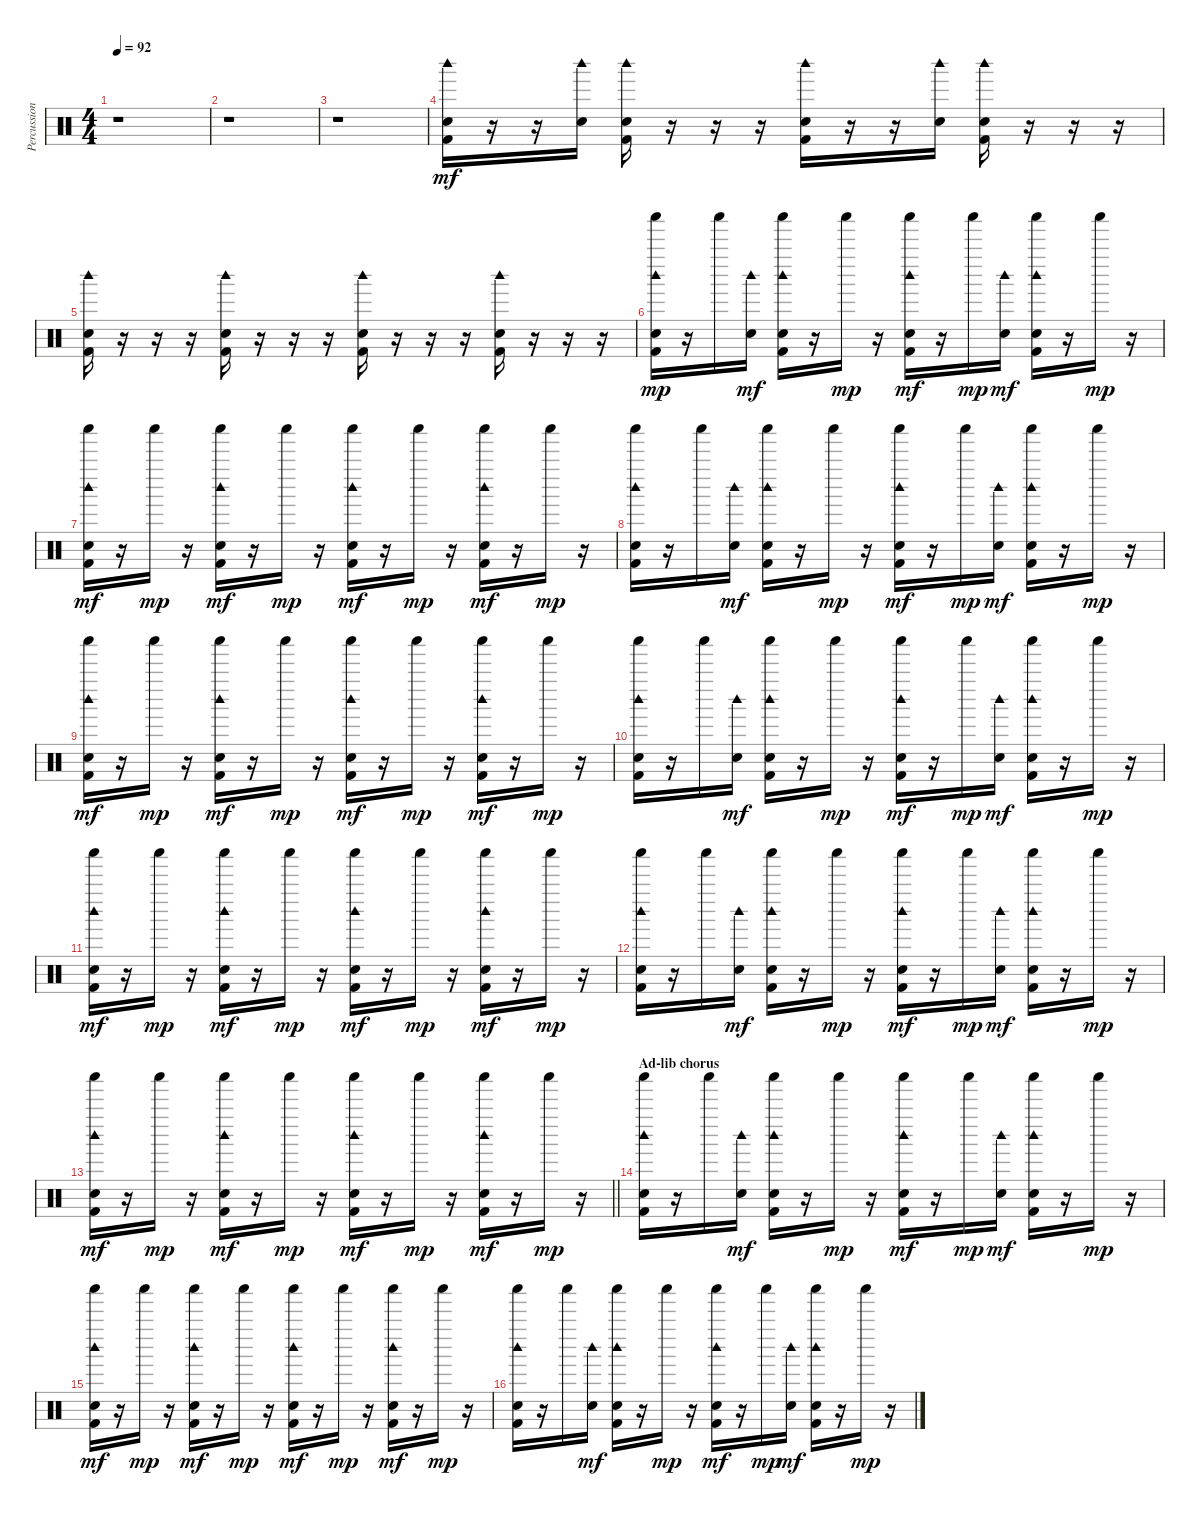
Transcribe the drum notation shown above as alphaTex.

\track ("Percussion" "Percussion") {instrument percussion}
\staff {score}
\articulation defaults
\ts (4 4)
\tempo 92
\clef neutral
\ks c
r.1{dy mp} |
r.1 |
r.1 |
("Woodblock high (hit)" "Snare (hit) 2" "Kick (hit) 2").16{dy mf} r.16 r.16 ("Woodblock high (hit)" "Snare (hit) 2").16 ("Woodblock high (hit)" "Snare (hit) 2" "Kick (hit) 2").16 r.16 r.16 r.16 ("Woodblock high (hit)" "Snare (hit) 2" "Kick (hit) 2").16 r.16 r.16 ("Woodblock high (hit)" "Snare (hit) 2").16 ("Woodblock high (hit)" "Snare (hit) 2" "Kick (hit) 2").16 r.16 r.16 r.16 |
("Woodblock high (hit)" "Snare (hit) 2" "Kick (hit) 2").16 r.16 r.16 r.16 ("Woodblock high (hit)" "Snare (hit) 2" "Kick (hit) 2").16 r.16 r.16 r.16 ("Woodblock high (hit)" "Snare (hit) 2" "Kick (hit) 2").16 r.16 r.16 r.16 ("Woodblock high (hit)" "Snare (hit) 2" "Kick (hit) 2").16 r.16 r.16 r.16 |
("Woodblock high (hit)" "Shaker (hit)" "Snare (hit) 2" "Kick (hit) 2").16{dy mp} r.16 "Shaker (hit)".16 ("Woodblock high (hit)" "Snare (hit) 2").16{dy mf} ("Woodblock high (hit)" "Shaker (hit)" "Snare (hit) 2" "Kick (hit) 2").16 r.16 "Shaker (hit)".16{dy mp} r.16 ("Woodblock high (hit)" "Shaker (hit)" "Snare (hit) 2" "Kick (hit) 2").16{dy mf} r.16 "Shaker (hit)".16{dy mp} ("Woodblock high (hit)" "Snare (hit) 2").16{dy mf} ("Woodblock high (hit)" "Shaker (hit)" "Snare (hit) 2" "Kick (hit) 2").16 r.16 "Shaker (hit)".16{dy mp} r.16 |
("Woodblock high (hit)" "Shaker (hit)" "Snare (hit) 2" "Kick (hit) 2").16{dy mf} r.16 "Shaker (hit)".16{dy mp} r.16 ("Woodblock high (hit)" "Shaker (hit)" "Snare (hit) 2" "Kick (hit) 2").16{dy mf} r.16 "Shaker (hit)".16{dy mp} r.16 ("Woodblock high (hit)" "Shaker (hit)" "Snare (hit) 2" "Kick (hit) 2").16{dy mf} r.16 "Shaker (hit)".16{dy mp} r.16 ("Woodblock high (hit)" "Shaker (hit)" "Snare (hit) 2" "Kick (hit) 2").16{dy mf} r.16 "Shaker (hit)".16{dy mp} r.16 |
("Woodblock high (hit)" "Shaker (hit)" "Snare (hit) 2" "Kick (hit) 2").16 r.16 "Shaker (hit)".16 ("Woodblock high (hit)" "Snare (hit) 2").16{dy mf} ("Woodblock high (hit)" "Shaker (hit)" "Snare (hit) 2" "Kick (hit) 2").16 r.16 "Shaker (hit)".16{dy mp} r.16 ("Woodblock high (hit)" "Shaker (hit)" "Snare (hit) 2" "Kick (hit) 2").16{dy mf} r.16 "Shaker (hit)".16{dy mp} ("Woodblock high (hit)" "Snare (hit) 2").16{dy mf} ("Woodblock high (hit)" "Shaker (hit)" "Snare (hit) 2" "Kick (hit) 2").16 r.16 "Shaker (hit)".16{dy mp} r.16 |
("Woodblock high (hit)" "Shaker (hit)" "Snare (hit) 2" "Kick (hit) 2").16{dy mf} r.16 "Shaker (hit)".16{dy mp} r.16 ("Woodblock high (hit)" "Shaker (hit)" "Snare (hit) 2" "Kick (hit) 2").16{dy mf} r.16 "Shaker (hit)".16{dy mp} r.16 ("Woodblock high (hit)" "Shaker (hit)" "Snare (hit) 2" "Kick (hit) 2").16{dy mf} r.16 "Shaker (hit)".16{dy mp} r.16 ("Woodblock high (hit)" "Shaker (hit)" "Snare (hit) 2" "Kick (hit) 2").16{dy mf} r.16 "Shaker (hit)".16{dy mp} r.16 |
("Woodblock high (hit)" "Shaker (hit)" "Snare (hit) 2" "Kick (hit) 2").16 r.16 "Shaker (hit)".16 ("Woodblock high (hit)" "Snare (hit) 2").16{dy mf} ("Woodblock high (hit)" "Shaker (hit)" "Snare (hit) 2" "Kick (hit) 2").16 r.16 "Shaker (hit)".16{dy mp} r.16 ("Woodblock high (hit)" "Shaker (hit)" "Snare (hit) 2" "Kick (hit) 2").16{dy mf} r.16 "Shaker (hit)".16{dy mp} ("Woodblock high (hit)" "Snare (hit) 2").16{dy mf} ("Woodblock high (hit)" "Shaker (hit)" "Snare (hit) 2" "Kick (hit) 2").16 r.16 "Shaker (hit)".16{dy mp} r.16 |
("Woodblock high (hit)" "Shaker (hit)" "Snare (hit) 2" "Kick (hit) 2").16{dy mf} r.16 "Shaker (hit)".16{dy mp} r.16 ("Woodblock high (hit)" "Shaker (hit)" "Snare (hit) 2" "Kick (hit) 2").16{dy mf} r.16 "Shaker (hit)".16{dy mp} r.16 ("Woodblock high (hit)" "Shaker (hit)" "Snare (hit) 2" "Kick (hit) 2").16{dy mf} r.16 "Shaker (hit)".16{dy mp} r.16 ("Woodblock high (hit)" "Shaker (hit)" "Snare (hit) 2" "Kick (hit) 2").16{dy mf} r.16 "Shaker (hit)".16{dy mp} r.16 |
("Woodblock high (hit)" "Shaker (hit)" "Snare (hit) 2" "Kick (hit) 2").16 r.16 "Shaker (hit)".16 ("Woodblock high (hit)" "Snare (hit) 2").16{dy mf} ("Woodblock high (hit)" "Shaker (hit)" "Snare (hit) 2" "Kick (hit) 2").16 r.16 "Shaker (hit)".16{dy mp} r.16 ("Woodblock high (hit)" "Shaker (hit)" "Snare (hit) 2" "Kick (hit) 2").16{dy mf} r.16 "Shaker (hit)".16{dy mp} ("Woodblock high (hit)" "Snare (hit) 2").16{dy mf} ("Woodblock high (hit)" "Shaker (hit)" "Snare (hit) 2" "Kick (hit) 2").16 r.16 "Shaker (hit)".16{dy mp} r.16 |
\barLineRight lightlight
("Woodblock high (hit)" "Shaker (hit)" "Snare (hit) 2" "Kick (hit) 2").16{dy mf} r.16 "Shaker (hit)".16{dy mp} r.16 ("Woodblock high (hit)" "Shaker (hit)" "Snare (hit) 2" "Kick (hit) 2").16{dy mf} r.16 "Shaker (hit)".16{dy mp} r.16 ("Woodblock high (hit)" "Shaker (hit)" "Snare (hit) 2" "Kick (hit) 2").16{dy mf} r.16 "Shaker (hit)".16{dy mp} r.16 ("Woodblock high (hit)" "Shaker (hit)" "Snare (hit) 2" "Kick (hit) 2").16{dy mf} r.16 "Shaker (hit)".16{dy mp} r.16 |
\section ("" "Ad-lib chorus")
("Woodblock high (hit)" "Shaker (hit)" "Snare (hit) 2" "Kick (hit) 2").16 r.16 "Shaker (hit)".16 ("Woodblock high (hit)" "Snare (hit) 2").16{dy mf} ("Woodblock high (hit)" "Shaker (hit)" "Snare (hit) 2" "Kick (hit) 2").16 r.16 "Shaker (hit)".16{dy mp} r.16 ("Woodblock high (hit)" "Shaker (hit)" "Snare (hit) 2" "Kick (hit) 2").16{dy mf} r.16 "Shaker (hit)".16{dy mp} ("Woodblock high (hit)" "Snare (hit) 2").16{dy mf} ("Woodblock high (hit)" "Shaker (hit)" "Snare (hit) 2" "Kick (hit) 2").16 r.16 "Shaker (hit)".16{dy mp} r.16 |
("Woodblock high (hit)" "Shaker (hit)" "Snare (hit) 2" "Kick (hit) 2").16{dy mf} r.16 "Shaker (hit)".16{dy mp} r.16 ("Woodblock high (hit)" "Shaker (hit)" "Snare (hit) 2" "Kick (hit) 2").16{dy mf} r.16 "Shaker (hit)".16{dy mp} r.16 ("Woodblock high (hit)" "Shaker (hit)" "Snare (hit) 2" "Kick (hit) 2").16{dy mf} r.16 "Shaker (hit)".16{dy mp} r.16 ("Woodblock high (hit)" "Shaker (hit)" "Snare (hit) 2" "Kick (hit) 2").16{dy mf} r.16 "Shaker (hit)".16{dy mp} r.16 |
("Woodblock high (hit)" "Shaker (hit)" "Snare (hit) 2" "Kick (hit) 2").16 r.16 "Shaker (hit)".16 ("Woodblock high (hit)" "Snare (hit) 2").16{dy mf} ("Woodblock high (hit)" "Shaker (hit)" "Snare (hit) 2" "Kick (hit) 2").16 r.16 "Shaker (hit)".16{dy mp} r.16 ("Woodblock high (hit)" "Shaker (hit)" "Snare (hit) 2" "Kick (hit) 2").16{dy mf} r.16 "Shaker (hit)".16{dy mp} ("Woodblock high (hit)" "Snare (hit) 2").16{dy mf} ("Woodblock high (hit)" "Shaker (hit)" "Snare (hit) 2" "Kick (hit) 2").16 r.16 "Shaker (hit)".16{dy mp} r.16
